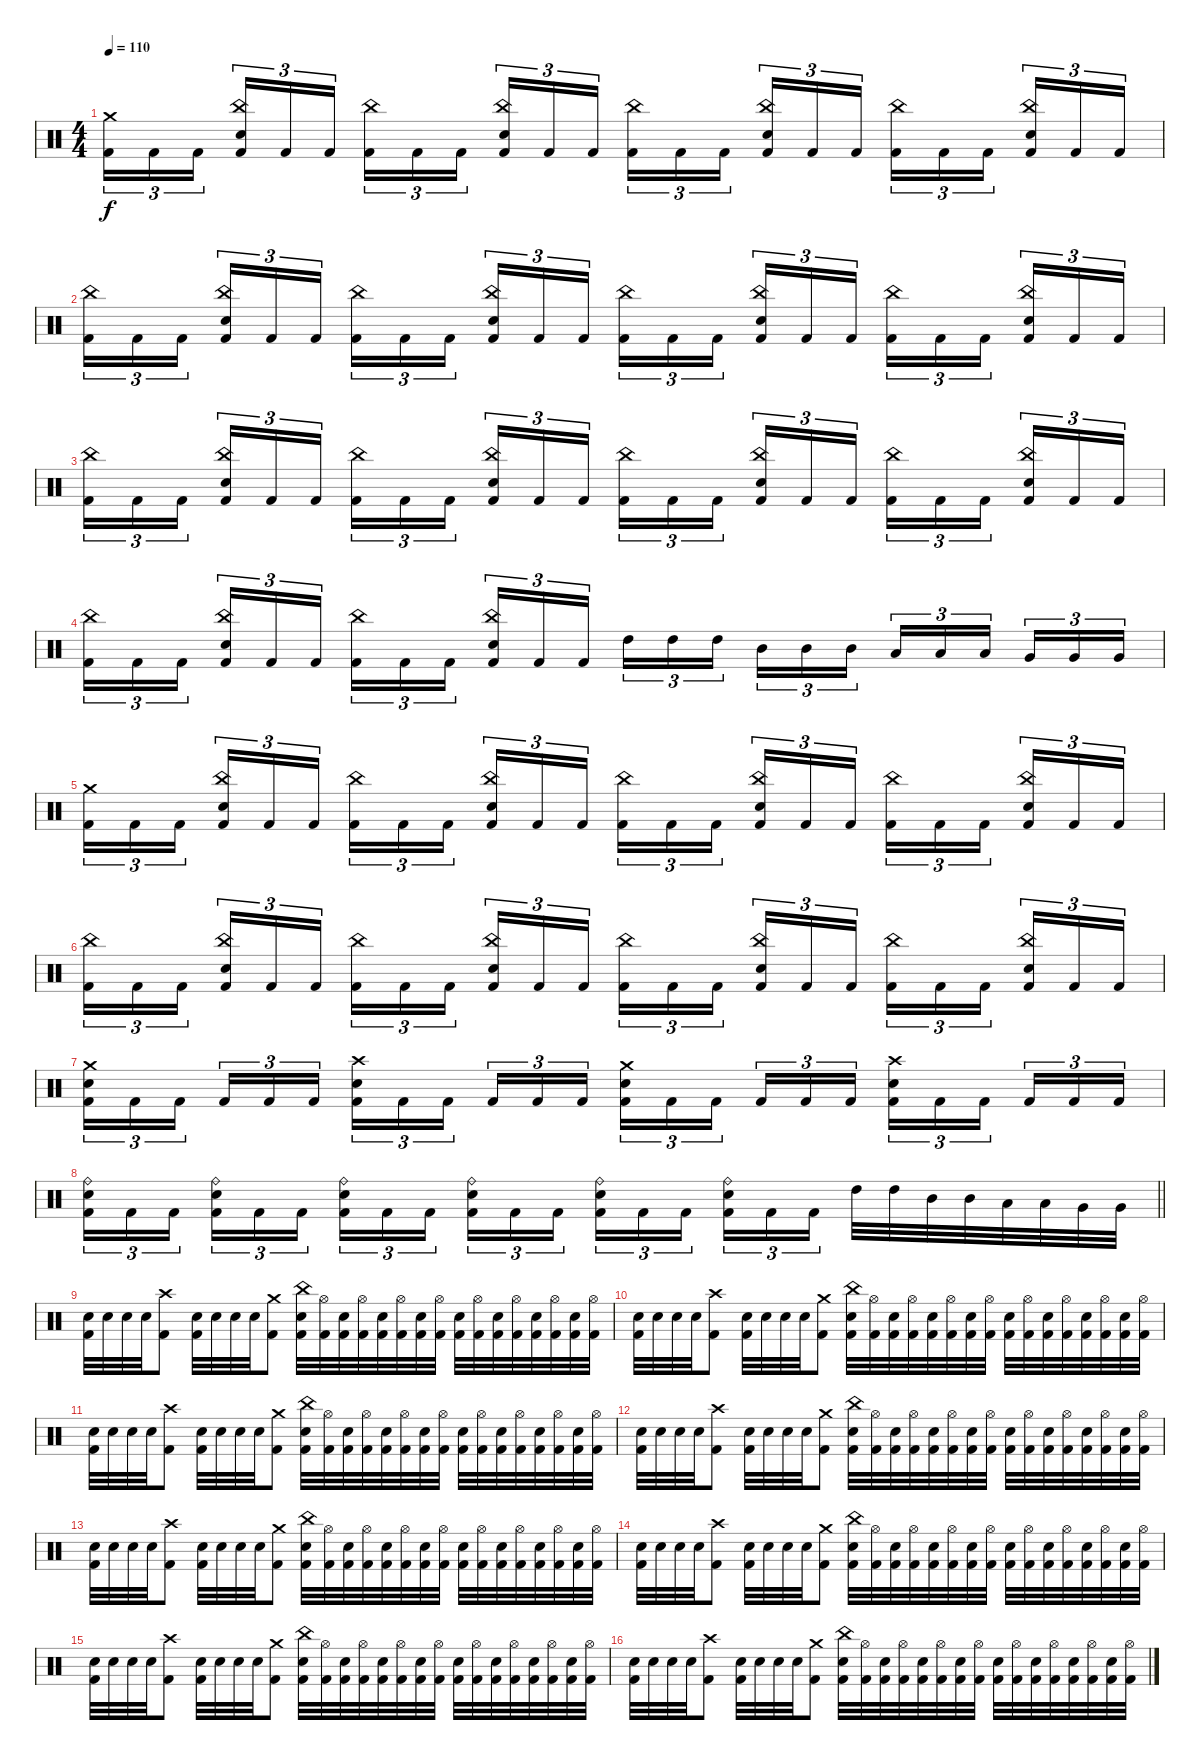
\track "" {instrument percussion}
\staff {score}
\articulation defaults
\ts (4 4)
\tempo 110
\clef neutral
\ks c
("Crash medium (hit)" "Kick (hit) 2").16{tu (3 2) dy f} "Kick (hit) 2".16{tu (3 2)} "Kick (hit) 2".16{tu (3 2) beam splitsecondary} ("China (hit)" "Electric Snare (hit)" "Kick (hit) 2").16{tu (3 2)} "Kick (hit) 2".16{tu (3 2)} "Kick (hit) 2".16{tu (3 2)} ("China (hit)" "Kick (hit) 2").16{tu (3 2)} "Kick (hit) 2".16{tu (3 2)} "Kick (hit) 2".16{tu (3 2) beam splitsecondary} ("China (hit)" "Electric Snare (hit)" "Kick (hit) 2").16{tu (3 2)} "Kick (hit) 2".16{tu (3 2)} "Kick (hit) 2".16{tu (3 2)} ("China (hit)" "Kick (hit) 2").16{tu (3 2)} "Kick (hit) 2".16{tu (3 2)} "Kick (hit) 2".16{tu (3 2) beam splitsecondary} ("China (hit)" "Electric Snare (hit)" "Kick (hit) 2").16{tu (3 2)} "Kick (hit) 2".16{tu (3 2)} "Kick (hit) 2".16{tu (3 2)} ("China (hit)" "Kick (hit) 2").16{tu (3 2)} "Kick (hit) 2".16{tu (3 2)} "Kick (hit) 2".16{tu (3 2) beam splitsecondary} ("China (hit)" "Electric Snare (hit)" "Kick (hit) 2").16{tu (3 2)} "Kick (hit) 2".16{tu (3 2)} "Kick (hit) 2".16{tu (3 2)} |
("China (hit)" "Kick (hit) 2").16{tu (3 2)} "Kick (hit) 2".16{tu (3 2)} "Kick (hit) 2".16{tu (3 2) beam splitsecondary} ("China (hit)" "Electric Snare (hit)" "Kick (hit) 2").16{tu (3 2)} "Kick (hit) 2".16{tu (3 2)} "Kick (hit) 2".16{tu (3 2)} ("China (hit)" "Kick (hit) 2").16{tu (3 2)} "Kick (hit) 2".16{tu (3 2)} "Kick (hit) 2".16{tu (3 2) beam splitsecondary} ("China (hit)" "Electric Snare (hit)" "Kick (hit) 2").16{tu (3 2)} "Kick (hit) 2".16{tu (3 2)} "Kick (hit) 2".16{tu (3 2)} ("China (hit)" "Kick (hit) 2").16{tu (3 2)} "Kick (hit) 2".16{tu (3 2)} "Kick (hit) 2".16{tu (3 2) beam splitsecondary} ("China (hit)" "Electric Snare (hit)" "Kick (hit) 2").16{tu (3 2)} "Kick (hit) 2".16{tu (3 2)} "Kick (hit) 2".16{tu (3 2)} ("China (hit)" "Kick (hit) 2").16{tu (3 2)} "Kick (hit) 2".16{tu (3 2)} "Kick (hit) 2".16{tu (3 2) beam splitsecondary} ("China (hit)" "Electric Snare (hit)" "Kick (hit) 2").16{tu (3 2)} "Kick (hit) 2".16{tu (3 2)} "Kick (hit) 2".16{tu (3 2)} |
("China (hit)" "Kick (hit) 2").16{tu (3 2)} "Kick (hit) 2".16{tu (3 2)} "Kick (hit) 2".16{tu (3 2) beam splitsecondary} ("China (hit)" "Electric Snare (hit)" "Kick (hit) 2").16{tu (3 2)} "Kick (hit) 2".16{tu (3 2)} "Kick (hit) 2".16{tu (3 2)} ("China (hit)" "Kick (hit) 2").16{tu (3 2)} "Kick (hit) 2".16{tu (3 2)} "Kick (hit) 2".16{tu (3 2) beam splitsecondary} ("China (hit)" "Electric Snare (hit)" "Kick (hit) 2").16{tu (3 2)} "Kick (hit) 2".16{tu (3 2)} "Kick (hit) 2".16{tu (3 2)} ("China (hit)" "Kick (hit) 2").16{tu (3 2)} "Kick (hit) 2".16{tu (3 2)} "Kick (hit) 2".16{tu (3 2) beam splitsecondary} ("China (hit)" "Electric Snare (hit)" "Kick (hit) 2").16{tu (3 2)} "Kick (hit) 2".16{tu (3 2)} "Kick (hit) 2".16{tu (3 2)} ("China (hit)" "Kick (hit) 2").16{tu (3 2)} "Kick (hit) 2".16{tu (3 2)} "Kick (hit) 2".16{tu (3 2) beam splitsecondary} ("China (hit)" "Electric Snare (hit)" "Kick (hit) 2").16{tu (3 2)} "Kick (hit) 2".16{tu (3 2)} "Kick (hit) 2".16{tu (3 2)} |
("China (hit)" "Kick (hit) 2").16{tu (3 2)} "Kick (hit) 2".16{tu (3 2)} "Kick (hit) 2".16{tu (3 2) beam splitsecondary} ("China (hit)" "Electric Snare (hit)" "Kick (hit) 2").16{tu (3 2)} "Kick (hit) 2".16{tu (3 2)} "Kick (hit) 2".16{tu (3 2)} ("China (hit)" "Kick (hit) 2").16{tu (3 2)} "Kick (hit) 2".16{tu (3 2)} "Kick (hit) 2".16{tu (3 2) beam splitsecondary} ("China (hit)" "Electric Snare (hit)" "Kick (hit) 2").16{tu (3 2)} "Kick (hit) 2".16{tu (3 2)} "Kick (hit) 2".16{tu (3 2)} "High Tom (hit)".16{tu (3 2)} "High Tom (hit)".16{tu (3 2)} "High Tom (hit)".16{tu (3 2) beam splitsecondary} "Mid Tom (hit)".16{tu (3 2)} "Mid Tom (hit)".16{tu (3 2)} "Mid Tom (hit)".16{tu (3 2)} "Low Tom (hit)".16{tu (3 2)} "Low Tom (hit)".16{tu (3 2)} "Low Tom (hit)".16{tu (3 2) beam splitsecondary} "Very Low Tom (hit)".16{tu (3 2)} "Very Low Tom (hit)".16{tu (3 2)} "Very Low Tom (hit)".16{tu (3 2)} |
("Crash medium (hit)" "Kick (hit) 2").16{tu (3 2)} "Kick (hit) 2".16{tu (3 2)} "Kick (hit) 2".16{tu (3 2) beam splitsecondary} ("China (hit)" "Electric Snare (hit)" "Kick (hit) 2").16{tu (3 2)} "Kick (hit) 2".16{tu (3 2)} "Kick (hit) 2".16{tu (3 2)} ("China (hit)" "Kick (hit) 2").16{tu (3 2)} "Kick (hit) 2".16{tu (3 2)} "Kick (hit) 2".16{tu (3 2) beam splitsecondary} ("China (hit)" "Electric Snare (hit)" "Kick (hit) 2").16{tu (3 2)} "Kick (hit) 2".16{tu (3 2)} "Kick (hit) 2".16{tu (3 2)} ("China (hit)" "Kick (hit) 2").16{tu (3 2)} "Kick (hit) 2".16{tu (3 2)} "Kick (hit) 2".16{tu (3 2) beam splitsecondary} ("China (hit)" "Electric Snare (hit)" "Kick (hit) 2").16{tu (3 2)} "Kick (hit) 2".16{tu (3 2)} "Kick (hit) 2".16{tu (3 2)} ("China (hit)" "Kick (hit) 2").16{tu (3 2)} "Kick (hit) 2".16{tu (3 2)} "Kick (hit) 2".16{tu (3 2) beam splitsecondary} ("China (hit)" "Electric Snare (hit)" "Kick (hit) 2").16{tu (3 2)} "Kick (hit) 2".16{tu (3 2)} "Kick (hit) 2".16{tu (3 2)} |
("China (hit)" "Kick (hit) 2").16{tu (3 2)} "Kick (hit) 2".16{tu (3 2)} "Kick (hit) 2".16{tu (3 2) beam splitsecondary} ("China (hit)" "Electric Snare (hit)" "Kick (hit) 2").16{tu (3 2)} "Kick (hit) 2".16{tu (3 2)} "Kick (hit) 2".16{tu (3 2)} ("China (hit)" "Kick (hit) 2").16{tu (3 2)} "Kick (hit) 2".16{tu (3 2)} "Kick (hit) 2".16{tu (3 2) beam splitsecondary} ("China (hit)" "Electric Snare (hit)" "Kick (hit) 2").16{tu (3 2)} "Kick (hit) 2".16{tu (3 2)} "Kick (hit) 2".16{tu (3 2)} ("China (hit)" "Kick (hit) 2").16{tu (3 2)} "Kick (hit) 2".16{tu (3 2)} "Kick (hit) 2".16{tu (3 2) beam splitsecondary} ("China (hit)" "Electric Snare (hit)" "Kick (hit) 2").16{tu (3 2)} "Kick (hit) 2".16{tu (3 2)} "Kick (hit) 2".16{tu (3 2)} ("China (hit)" "Kick (hit) 2").16{tu (3 2)} "Kick (hit) 2".16{tu (3 2)} "Kick (hit) 2".16{tu (3 2) beam splitsecondary} ("China (hit)" "Electric Snare (hit)" "Kick (hit) 2").16{tu (3 2)} "Kick (hit) 2".16{tu (3 2)} "Kick (hit) 2".16{tu (3 2)} |
("Crash medium (hit)" "Electric Snare (hit)" "Kick (hit) 2").16{tu (3 2)} "Kick (hit) 2".16{tu (3 2)} "Kick (hit) 2".16{tu (3 2) beam splitsecondary} "Kick (hit) 2".16{tu (3 2)} "Kick (hit) 2".16{tu (3 2)} "Kick (hit) 2".16{tu (3 2)} ("Crash high (hit)" "Electric Snare (hit)" "Kick (hit) 2").16{tu (3 2)} "Kick (hit) 2".16{tu (3 2)} "Kick (hit) 2".16{tu (3 2) beam splitsecondary} "Kick (hit) 2".16{tu (3 2)} "Kick (hit) 2".16{tu (3 2)} "Kick (hit) 2".16{tu (3 2)} ("Crash medium (hit)" "Electric Snare (hit)" "Kick (hit) 2").16{tu (3 2)} "Kick (hit) 2".16{tu (3 2)} "Kick (hit) 2".16{tu (3 2) beam splitsecondary} "Kick (hit) 2".16{tu (3 2)} "Kick (hit) 2".16{tu (3 2)} "Kick (hit) 2".16{tu (3 2)} ("Crash high (hit)" "Electric Snare (hit)" "Kick (hit) 2").16{tu (3 2)} "Kick (hit) 2".16{tu (3 2)} "Kick (hit) 2".16{tu (3 2) beam splitsecondary} "Kick (hit) 2".16{tu (3 2)} "Kick (hit) 2".16{tu (3 2)} "Kick (hit) 2".16{tu (3 2)} |
\barLineRight lightlight
("Ride (bell)" "Electric Snare (hit)" "Kick (hit) 2").16{tu (3 2)} "Kick (hit) 2".16{tu (3 2)} "Kick (hit) 2".16{tu (3 2) beam splitsecondary} ("Ride (bell)" "Electric Snare (hit)" "Kick (hit) 2").16{tu (3 2)} "Kick (hit) 2".16{tu (3 2)} "Kick (hit) 2".16{tu (3 2)} ("Ride (bell)" "Electric Snare (hit)" "Kick (hit) 2").16{tu (3 2)} "Kick (hit) 2".16{tu (3 2)} "Kick (hit) 2".16{tu (3 2) beam splitsecondary} ("Ride (bell)" "Electric Snare (hit)" "Kick (hit) 2").16{tu (3 2)} "Kick (hit) 2".16{tu (3 2)} "Kick (hit) 2".16{tu (3 2)} ("Ride (bell)" "Electric Snare (hit)" "Kick (hit) 2").16{tu (3 2)} "Kick (hit) 2".16{tu (3 2)} "Kick (hit) 2".16{tu (3 2) beam splitsecondary} ("Ride (bell)" "Electric Snare (hit)" "Kick (hit) 2").16{tu (3 2)} "Kick (hit) 2".16{tu (3 2)} "Kick (hit) 2".16{tu (3 2)} "High Tom (hit)".32 "High Tom (hit)".32 "Mid Tom (hit)".32 "Mid Tom (hit)".32 "Low Tom (hit)".32 "Low Tom (hit)".32 "Very Low Tom (hit)".32 "Very Low Tom (hit)".32 |
("Electric Snare (hit)" "Kick (hit) 2").32 "Electric Snare (hit)".32 "Electric Snare (hit)".32 "Electric Snare (hit)".32 ("Crash high (hit)" "Kick (hit) 2").8 ("Electric Snare (hit)" "Kick (hit) 2").32 "Electric Snare (hit)".32 "Electric Snare (hit)".32 "Electric Snare (hit)".32 ("Crash medium (hit)" "Kick (hit) 2").8 ("China (hit)" "Electric Snare (hit)" "Kick (hit) 2").32 ("Hi-Hat (open)" "Kick (hit) 2").32 ("Electric Snare (hit)" "Kick (hit) 2").32 ("Hi-Hat (open)" "Kick (hit) 2").32 ("Electric Snare (hit)" "Kick (hit) 2").32 ("Hi-Hat (open)" "Kick (hit) 2").32 ("Electric Snare (hit)" "Kick (hit) 2").32 ("Hi-Hat (open)" "Kick (hit) 2").32 ("Electric Snare (hit)" "Kick (hit) 2").32 ("Hi-Hat (open)" "Kick (hit) 2").32 ("Electric Snare (hit)" "Kick (hit) 2").32 ("Hi-Hat (open)" "Kick (hit) 2").32 ("Electric Snare (hit)" "Kick (hit) 2").32 ("Hi-Hat (open)" "Kick (hit) 2").32 ("Electric Snare (hit)" "Kick (hit) 2").32 ("Hi-Hat (open)" "Kick (hit) 2").32 |
("Electric Snare (hit)" "Kick (hit) 2").32 "Electric Snare (hit)".32 "Electric Snare (hit)".32 "Electric Snare (hit)".32 ("Crash high (hit)" "Kick (hit) 2").8 ("Electric Snare (hit)" "Kick (hit) 2").32 "Electric Snare (hit)".32 "Electric Snare (hit)".32 "Electric Snare (hit)".32 ("Crash medium (hit)" "Kick (hit) 2").8 ("China (hit)" "Electric Snare (hit)" "Kick (hit) 2").32 ("Hi-Hat (open)" "Kick (hit) 2").32 ("Electric Snare (hit)" "Kick (hit) 2").32 ("Hi-Hat (open)" "Kick (hit) 2").32 ("Electric Snare (hit)" "Kick (hit) 2").32 ("Hi-Hat (open)" "Kick (hit) 2").32 ("Electric Snare (hit)" "Kick (hit) 2").32 ("Hi-Hat (open)" "Kick (hit) 2").32 ("Electric Snare (hit)" "Kick (hit) 2").32 ("Hi-Hat (open)" "Kick (hit) 2").32 ("Electric Snare (hit)" "Kick (hit) 2").32 ("Hi-Hat (open)" "Kick (hit) 2").32 ("Electric Snare (hit)" "Kick (hit) 2").32 ("Hi-Hat (open)" "Kick (hit) 2").32 ("Electric Snare (hit)" "Kick (hit) 2").32 ("Hi-Hat (open)" "Kick (hit) 2").32 |
("Electric Snare (hit)" "Kick (hit) 2").32 "Electric Snare (hit)".32 "Electric Snare (hit)".32 "Electric Snare (hit)".32 ("Crash high (hit)" "Kick (hit) 2").8 ("Electric Snare (hit)" "Kick (hit) 2").32 "Electric Snare (hit)".32 "Electric Snare (hit)".32 "Electric Snare (hit)".32 ("Crash medium (hit)" "Kick (hit) 2").8 ("China (hit)" "Electric Snare (hit)" "Kick (hit) 2").32 ("Hi-Hat (open)" "Kick (hit) 2").32 ("Electric Snare (hit)" "Kick (hit) 2").32 ("Hi-Hat (open)" "Kick (hit) 2").32 ("Electric Snare (hit)" "Kick (hit) 2").32 ("Hi-Hat (open)" "Kick (hit) 2").32 ("Electric Snare (hit)" "Kick (hit) 2").32 ("Hi-Hat (open)" "Kick (hit) 2").32 ("Electric Snare (hit)" "Kick (hit) 2").32 ("Hi-Hat (open)" "Kick (hit) 2").32 ("Electric Snare (hit)" "Kick (hit) 2").32 ("Hi-Hat (open)" "Kick (hit) 2").32 ("Electric Snare (hit)" "Kick (hit) 2").32 ("Hi-Hat (open)" "Kick (hit) 2").32 ("Electric Snare (hit)" "Kick (hit) 2").32 ("Hi-Hat (open)" "Kick (hit) 2").32 |
("Electric Snare (hit)" "Kick (hit) 2").32 "Electric Snare (hit)".32 "Electric Snare (hit)".32 "Electric Snare (hit)".32 ("Crash high (hit)" "Kick (hit) 2").8 ("Electric Snare (hit)" "Kick (hit) 2").32 "Electric Snare (hit)".32 "Electric Snare (hit)".32 "Electric Snare (hit)".32 ("Crash medium (hit)" "Kick (hit) 2").8 ("China (hit)" "Electric Snare (hit)" "Kick (hit) 2").32 ("Hi-Hat (open)" "Kick (hit) 2").32 ("Electric Snare (hit)" "Kick (hit) 2").32 ("Hi-Hat (open)" "Kick (hit) 2").32 ("Electric Snare (hit)" "Kick (hit) 2").32 ("Hi-Hat (open)" "Kick (hit) 2").32 ("Electric Snare (hit)" "Kick (hit) 2").32 ("Hi-Hat (open)" "Kick (hit) 2").32 ("Electric Snare (hit)" "Kick (hit) 2").32 ("Hi-Hat (open)" "Kick (hit) 2").32 ("Electric Snare (hit)" "Kick (hit) 2").32 ("Hi-Hat (open)" "Kick (hit) 2").32 ("Electric Snare (hit)" "Kick (hit) 2").32 ("Hi-Hat (open)" "Kick (hit) 2").32 ("Electric Snare (hit)" "Kick (hit) 2").32 ("Hi-Hat (open)" "Kick (hit) 2").32 |
("Electric Snare (hit)" "Kick (hit) 2").32 "Electric Snare (hit)".32 "Electric Snare (hit)".32 "Electric Snare (hit)".32 ("Crash high (hit)" "Kick (hit) 2").8 ("Electric Snare (hit)" "Kick (hit) 2").32 "Electric Snare (hit)".32 "Electric Snare (hit)".32 "Electric Snare (hit)".32 ("Crash medium (hit)" "Kick (hit) 2").8 ("China (hit)" "Electric Snare (hit)" "Kick (hit) 2").32 ("Hi-Hat (open)" "Kick (hit) 2").32 ("Electric Snare (hit)" "Kick (hit) 2").32 ("Hi-Hat (open)" "Kick (hit) 2").32 ("Electric Snare (hit)" "Kick (hit) 2").32 ("Hi-Hat (open)" "Kick (hit) 2").32 ("Electric Snare (hit)" "Kick (hit) 2").32 ("Hi-Hat (open)" "Kick (hit) 2").32 ("Electric Snare (hit)" "Kick (hit) 2").32 ("Hi-Hat (open)" "Kick (hit) 2").32 ("Electric Snare (hit)" "Kick (hit) 2").32 ("Hi-Hat (open)" "Kick (hit) 2").32 ("Electric Snare (hit)" "Kick (hit) 2").32 ("Hi-Hat (open)" "Kick (hit) 2").32 ("Electric Snare (hit)" "Kick (hit) 2").32 ("Hi-Hat (open)" "Kick (hit) 2").32 |
("Electric Snare (hit)" "Kick (hit) 2").32 "Electric Snare (hit)".32 "Electric Snare (hit)".32 "Electric Snare (hit)".32 ("Crash high (hit)" "Kick (hit) 2").8 ("Electric Snare (hit)" "Kick (hit) 2").32 "Electric Snare (hit)".32 "Electric Snare (hit)".32 "Electric Snare (hit)".32 ("Crash medium (hit)" "Kick (hit) 2").8 ("China (hit)" "Electric Snare (hit)" "Kick (hit) 2").32 ("Hi-Hat (open)" "Kick (hit) 2").32 ("Electric Snare (hit)" "Kick (hit) 2").32 ("Hi-Hat (open)" "Kick (hit) 2").32 ("Electric Snare (hit)" "Kick (hit) 2").32 ("Hi-Hat (open)" "Kick (hit) 2").32 ("Electric Snare (hit)" "Kick (hit) 2").32 ("Hi-Hat (open)" "Kick (hit) 2").32 ("Electric Snare (hit)" "Kick (hit) 2").32 ("Hi-Hat (open)" "Kick (hit) 2").32 ("Electric Snare (hit)" "Kick (hit) 2").32 ("Hi-Hat (open)" "Kick (hit) 2").32 ("Electric Snare (hit)" "Kick (hit) 2").32 ("Hi-Hat (open)" "Kick (hit) 2").32 ("Electric Snare (hit)" "Kick (hit) 2").32 ("Hi-Hat (open)" "Kick (hit) 2").32 |
("Electric Snare (hit)" "Kick (hit) 2").32 "Electric Snare (hit)".32 "Electric Snare (hit)".32 "Electric Snare (hit)".32 ("Crash high (hit)" "Kick (hit) 2").8 ("Electric Snare (hit)" "Kick (hit) 2").32 "Electric Snare (hit)".32 "Electric Snare (hit)".32 "Electric Snare (hit)".32 ("Crash medium (hit)" "Kick (hit) 2").8 ("China (hit)" "Electric Snare (hit)" "Kick (hit) 2").32 ("Hi-Hat (open)" "Kick (hit) 2").32 ("Electric Snare (hit)" "Kick (hit) 2").32 ("Hi-Hat (open)" "Kick (hit) 2").32 ("Electric Snare (hit)" "Kick (hit) 2").32 ("Hi-Hat (open)" "Kick (hit) 2").32 ("Electric Snare (hit)" "Kick (hit) 2").32 ("Hi-Hat (open)" "Kick (hit) 2").32 ("Electric Snare (hit)" "Kick (hit) 2").32 ("Hi-Hat (open)" "Kick (hit) 2").32 ("Electric Snare (hit)" "Kick (hit) 2").32 ("Hi-Hat (open)" "Kick (hit) 2").32 ("Electric Snare (hit)" "Kick (hit) 2").32 ("Hi-Hat (open)" "Kick (hit) 2").32 ("Electric Snare (hit)" "Kick (hit) 2").32 ("Hi-Hat (open)" "Kick (hit) 2").32 |
("Electric Snare (hit)" "Kick (hit) 2").32 "Electric Snare (hit)".32 "Electric Snare (hit)".32 "Electric Snare (hit)".32 ("Crash high (hit)" "Kick (hit) 2").8 ("Electric Snare (hit)" "Kick (hit) 2").32 "Electric Snare (hit)".32 "Electric Snare (hit)".32 "Electric Snare (hit)".32 ("Crash medium (hit)" "Kick (hit) 2").8 ("China (hit)" "Electric Snare (hit)" "Kick (hit) 2").32 ("Hi-Hat (open)" "Kick (hit) 2").32 ("Electric Snare (hit)" "Kick (hit) 2").32 ("Hi-Hat (open)" "Kick (hit) 2").32 ("Electric Snare (hit)" "Kick (hit) 2").32 ("Hi-Hat (open)" "Kick (hit) 2").32 ("Electric Snare (hit)" "Kick (hit) 2").32 ("Hi-Hat (open)" "Kick (hit) 2").32 ("Electric Snare (hit)" "Kick (hit) 2").32 ("Hi-Hat (open)" "Kick (hit) 2").32 ("Electric Snare (hit)" "Kick (hit) 2").32 ("Hi-Hat (open)" "Kick (hit) 2").32 ("Electric Snare (hit)" "Kick (hit) 2").32 ("Hi-Hat (open)" "Kick (hit) 2").32 ("Electric Snare (hit)" "Kick (hit) 2").32 ("Hi-Hat (open)" "Kick (hit) 2").32
